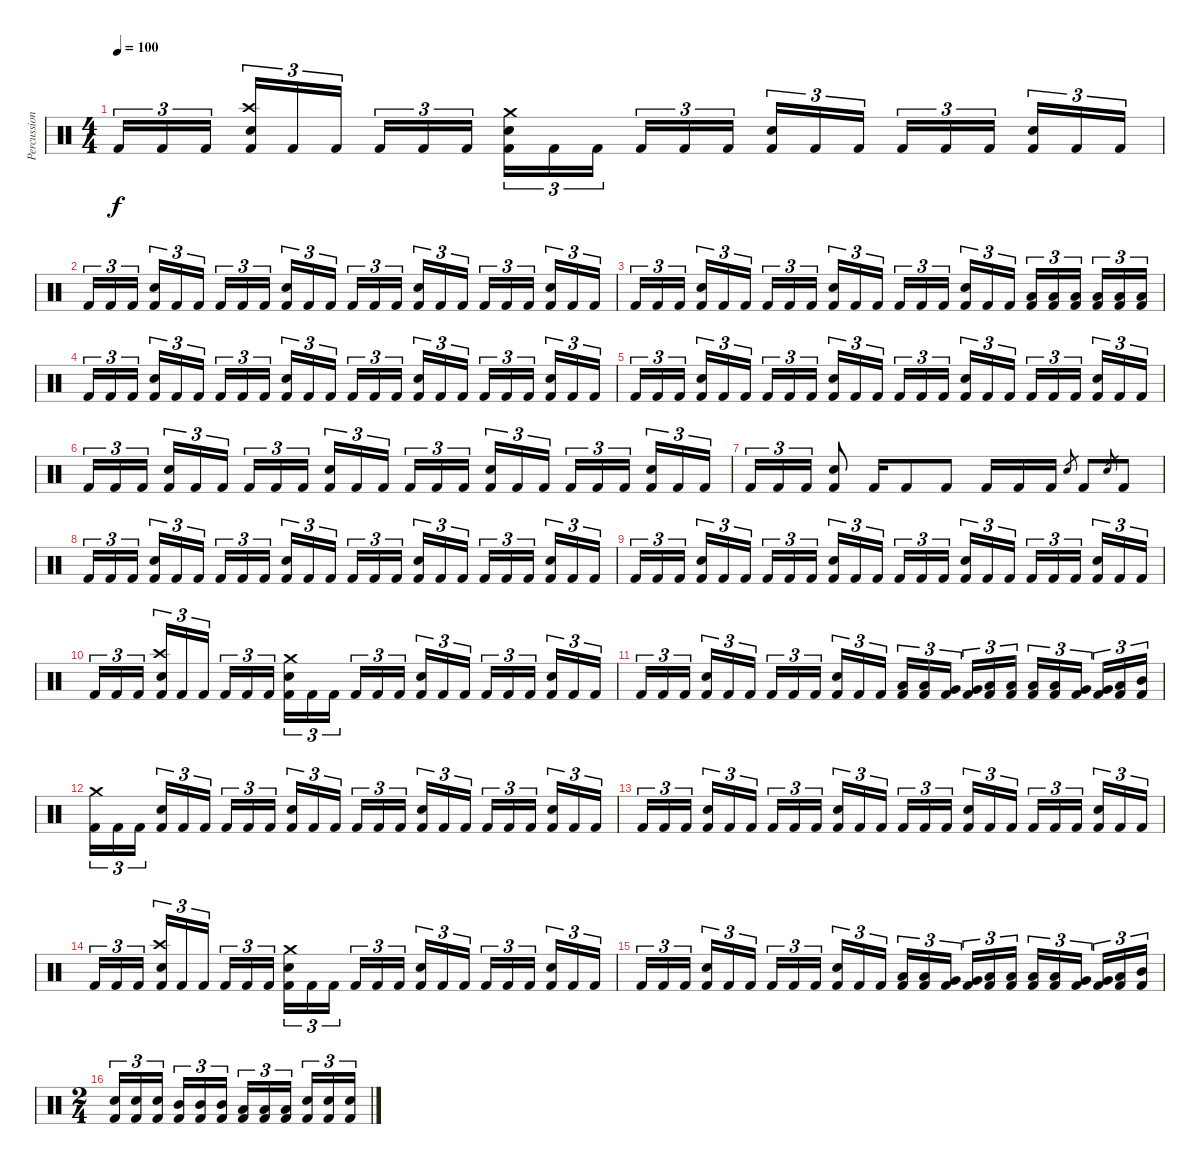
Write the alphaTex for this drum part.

\track ("Percussions" "Percussion") {instrument percussion}
\staff {score}
\articulation defaults
\ts (4 4)
\tempo 100
\clef neutral
\ks c "Kick (hit) 2".16{tu (3 2) dy f} "Kick (hit) 2".16{tu (3 2)} "Kick (hit) 2".16{tu (3 2)}
("Crash high (hit)" "Electric Snare (hit)" "Kick (hit) 2").16{tu (3 2)} "Kick (hit) 2".16{tu (3 2)} "Kick (hit) 2".16{tu (3 2)} "Kick (hit) 2".16{tu (3 2)} "Kick (hit) 2".16{tu (3 2)} "Kick (hit) 2".16{tu (3 2)} ("Crash medium (hit)" "Electric Snare (hit)" "Kick (hit) 2").16{tu (3 2)} "Kick (hit) 2".16{tu (3 2)} "Kick (hit) 2".16{tu (3 2)} "Kick (hit) 2".16{tu (3 2)} "Kick (hit) 2".16{tu (3 2)} "Kick (hit) 2".16{tu (3 2)} ("Electric Snare (hit)" "Kick (hit) 2").16{tu (3 2)} "Kick (hit) 2".16{tu (3 2)} "Kick (hit) 2".16{tu (3 2)} "Kick (hit) 2".16{tu (3 2)} "Kick (hit) 2".16{tu (3 2)} "Kick (hit) 2".16{tu (3 2)} ("Electric Snare (hit)" "Kick (hit) 2").16{tu (3 2)} "Kick (hit) 2".16{tu (3 2)} "Kick (hit) 2".16{tu (3 2)} |
"Kick (hit) 2".16{tu (3 2)} "Kick (hit) 2".16{tu (3 2)} "Kick (hit) 2".16{tu (3 2)} ("Electric Snare (hit)" "Kick (hit) 2").16{tu (3 2)} "Kick (hit) 2".16{tu (3 2)} "Kick (hit) 2".16{tu (3 2)} "Kick (hit) 2".16{tu (3 2)} "Kick (hit) 2".16{tu (3 2)} "Kick (hit) 2".16{tu (3 2)} ("Electric Snare (hit)" "Kick (hit) 2").16{tu (3 2)} "Kick (hit) 2".16{tu (3 2)} "Kick (hit) 2".16{tu (3 2)} "Kick (hit) 2".16{tu (3 2)} "Kick (hit) 2".16{tu (3 2)} "Kick (hit) 2".16{tu (3 2)} ("Electric Snare (hit)" "Kick (hit) 2").16{tu (3 2)} "Kick (hit) 2".16{tu (3 2)} "Kick (hit) 2".16{tu (3 2)} "Kick (hit) 2".16{tu (3 2)} "Kick (hit) 2".16{tu (3 2)} "Kick (hit) 2".16{tu (3 2)} ("Electric Snare (hit)" "Kick (hit) 2").16{tu (3 2)} "Kick (hit) 2".16{tu (3 2)} "Kick (hit) 2".16{tu (3 2)} |
"Kick (hit) 2".16{tu (3 2)} "Kick (hit) 2".16{tu (3 2)} "Kick (hit) 2".16{tu (3 2)} ("Electric Snare (hit)" "Kick (hit) 2").16{tu (3 2)} "Kick (hit) 2".16{tu (3 2)} "Kick (hit) 2".16{tu (3 2)} "Kick (hit) 2".16{tu (3 2)} "Kick (hit) 2".16{tu (3 2)} "Kick (hit) 2".16{tu (3 2)} ("Electric Snare (hit)" "Kick (hit) 2").16{tu (3 2)} "Kick (hit) 2".16{tu (3 2)} "Kick (hit) 2".16{tu (3 2)} "Kick (hit) 2".16{tu (3 2)} "Kick (hit) 2".16{tu (3 2)} "Kick (hit) 2".16{tu (3 2)} ("Electric Snare (hit)" "Kick (hit) 2").16{tu (3 2)} "Kick (hit) 2".16{tu (3 2)} "Kick (hit) 2".16{tu (3 2)} ("Low Tom (hit)" "Kick (hit) 2").16{tu (3 2)} ("Low Tom (hit)" "Kick (hit) 2").16{tu (3 2)} ("Low Tom (hit)" "Kick (hit) 2").16{tu (3 2)} ("Low Tom (hit)" "Kick (hit) 2").16{tu (3 2)} ("Low Tom (hit)" "Kick (hit) 2").16{tu (3 2)} ("Low Tom (hit)" "Kick (hit) 2").16{tu (3 2)} |
"Kick (hit) 2".16{tu (3 2)} "Kick (hit) 2".16{tu (3 2)} "Kick (hit) 2".16{tu (3 2)} ("Electric Snare (hit)" "Kick (hit) 2").16{tu (3 2)} "Kick (hit) 2".16{tu (3 2)} "Kick (hit) 2".16{tu (3 2)} "Kick (hit) 2".16{tu (3 2)} "Kick (hit) 2".16{tu (3 2)} "Kick (hit) 2".16{tu (3 2)} ("Electric Snare (hit)" "Kick (hit) 2").16{tu (3 2)} "Kick (hit) 2".16{tu (3 2)} "Kick (hit) 2".16{tu (3 2)} "Kick (hit) 2".16{tu (3 2)} "Kick (hit) 2".16{tu (3 2)} "Kick (hit) 2".16{tu (3 2)} ("Electric Snare (hit)" "Kick (hit) 2").16{tu (3 2)} "Kick (hit) 2".16{tu (3 2)} "Kick (hit) 2".16{tu (3 2)} "Kick (hit) 2".16{tu (3 2)} "Kick (hit) 2".16{tu (3 2)} "Kick (hit) 2".16{tu (3 2)} ("Electric Snare (hit)" "Kick (hit) 2").16{tu (3 2)} "Kick (hit) 2".16{tu (3 2)} "Kick (hit) 2".16{tu (3 2)} |
"Kick (hit) 2".16{tu (3 2)} "Kick (hit) 2".16{tu (3 2)} "Kick (hit) 2".16{tu (3 2)} ("Electric Snare (hit)" "Kick (hit) 2").16{tu (3 2)} "Kick (hit) 2".16{tu (3 2)} "Kick (hit) 2".16{tu (3 2)} "Kick (hit) 2".16{tu (3 2)} "Kick (hit) 2".16{tu (3 2)} "Kick (hit) 2".16{tu (3 2)} ("Electric Snare (hit)" "Kick (hit) 2").16{tu (3 2)} "Kick (hit) 2".16{tu (3 2)} "Kick (hit) 2".16{tu (3 2)} "Kick (hit) 2".16{tu (3 2)} "Kick (hit) 2".16{tu (3 2)} "Kick (hit) 2".16{tu (3 2)} ("Electric Snare (hit)" "Kick (hit) 2").16{tu (3 2)} "Kick (hit) 2".16{tu (3 2)} "Kick (hit) 2".16{tu (3 2)} "Kick (hit) 2".16{tu (3 2)} "Kick (hit) 2".16{tu (3 2)} "Kick (hit) 2".16{tu (3 2)} ("Electric Snare (hit)" "Kick (hit) 2").16{tu (3 2)} "Kick (hit) 2".16{tu (3 2)} "Kick (hit) 2".16{tu (3 2)} |
"Kick (hit) 2".16{tu (3 2)} "Kick (hit) 2".16{tu (3 2)} "Kick (hit) 2".16{tu (3 2)} ("Electric Snare (hit)" "Kick (hit) 2").16{tu (3 2)} "Kick (hit) 2".16{tu (3 2)} "Kick (hit) 2".16{tu (3 2)} "Kick (hit) 2".16{tu (3 2)} "Kick (hit) 2".16{tu (3 2)} "Kick (hit) 2".16{tu (3 2)} ("Electric Snare (hit)" "Kick (hit) 2").16{tu (3 2)} "Kick (hit) 2".16{tu (3 2)} "Kick (hit) 2".16{tu (3 2)} "Kick (hit) 2".16{tu (3 2)} "Kick (hit) 2".16{tu (3 2)} "Kick (hit) 2".16{tu (3 2)} ("Electric Snare (hit)" "Kick (hit) 2").16{tu (3 2)} "Kick (hit) 2".16{tu (3 2)} "Kick (hit) 2".16{tu (3 2)} "Kick (hit) 2".16{tu (3 2)} "Kick (hit) 2".16{tu (3 2)} "Kick (hit) 2".16{tu (3 2)} ("Electric Snare (hit)" "Kick (hit) 2").16{tu (3 2)} "Kick (hit) 2".16{tu (3 2)} "Kick (hit) 2".16{tu (3 2)} |
"Kick (hit) 2".16{tu (3 2)} "Kick (hit) 2".16{tu (3 2)} "Kick (hit) 2".16{tu (3 2)} ("Electric Snare (hit)" "Kick (hit) 2").8 "Kick (hit) 2".16 "Kick (hit) 2".8 "Kick (hit) 2".8 "Kick (hit) 2".16 "Kick (hit) 2".16 "Kick (hit) 2".16 "Electric Snare (hit)".8{gr} "Kick (hit) 2".8 "Electric Snare (hit)".8{gr} "Kick (hit) 2".8 |
"Kick (hit) 2".16{tu (3 2)} "Kick (hit) 2".16{tu (3 2)} "Kick (hit) 2".16{tu (3 2)} ("Electric Snare (hit)" "Kick (hit) 2").16{tu (3 2)} "Kick (hit) 2".16{tu (3 2)} "Kick (hit) 2".16{tu (3 2)} "Kick (hit) 2".16{tu (3 2)} "Kick (hit) 2".16{tu (3 2)} "Kick (hit) 2".16{tu (3 2)} ("Electric Snare (hit)" "Kick (hit) 2").16{tu (3 2)} "Kick (hit) 2".16{tu (3 2)} "Kick (hit) 2".16{tu (3 2)} "Kick (hit) 2".16{tu (3 2)} "Kick (hit) 2".16{tu (3 2)} "Kick (hit) 2".16{tu (3 2)} ("Electric Snare (hit)" "Kick (hit) 2").16{tu (3 2)} "Kick (hit) 2".16{tu (3 2)} "Kick (hit) 2".16{tu (3 2)} "Kick (hit) 2".16{tu (3 2)} "Kick (hit) 2".16{tu (3 2)} "Kick (hit) 2".16{tu (3 2)} ("Electric Snare (hit)" "Kick (hit) 2").16{tu (3 2)} "Kick (hit) 2".16{tu (3 2)} "Kick (hit) 2".16{tu (3 2)} |
"Kick (hit) 2".16{tu (3 2)} "Kick (hit) 2".16{tu (3 2)} "Kick (hit) 2".16{tu (3 2)} ("Electric Snare (hit)" "Kick (hit) 2").16{tu (3 2)} "Kick (hit) 2".16{tu (3 2)} "Kick (hit) 2".16{tu (3 2)} "Kick (hit) 2".16{tu (3 2)} "Kick (hit) 2".16{tu (3 2)} "Kick (hit) 2".16{tu (3 2)} ("Electric Snare (hit)" "Kick (hit) 2").16{tu (3 2)} "Kick (hit) 2".16{tu (3 2)} "Kick (hit) 2".16{tu (3 2)} "Kick (hit) 2".16{tu (3 2)} "Kick (hit) 2".16{tu (3 2)} "Kick (hit) 2".16{tu (3 2)} ("Electric Snare (hit)" "Kick (hit) 2").16{tu (3 2)} "Kick (hit) 2".16{tu (3 2)} "Kick (hit) 2".16{tu (3 2)} "Kick (hit) 2".16{tu (3 2)} "Kick (hit) 2".16{tu (3 2)} "Kick (hit) 2".16{tu (3 2)} ("Electric Snare (hit)" "Kick (hit) 2").16{tu (3 2)} "Kick (hit) 2".16{tu (3 2)} "Kick (hit) 2".16{tu (3 2)} |
"Kick (hit) 2".16{tu (3 2)} "Kick (hit) 2".16{tu (3 2)} "Kick (hit) 2".16{tu (3 2)} ("Crash high (hit)" "Electric Snare (hit)" "Kick (hit) 2").16{tu (3 2)} "Kick (hit) 2".16{tu (3 2)} "Kick (hit) 2".16{tu (3 2)} "Kick (hit) 2".16{tu (3 2)} "Kick (hit) 2".16{tu (3 2)} "Kick (hit) 2".16{tu (3 2)} ("Crash medium (hit)" "Electric Snare (hit)" "Kick (hit) 2").16{tu (3 2)} "Kick (hit) 2".16{tu (3 2)} "Kick (hit) 2".16{tu (3 2)} "Kick (hit) 2".16{tu (3 2)} "Kick (hit) 2".16{tu (3 2)} "Kick (hit) 2".16{tu (3 2)} ("Electric Snare (hit)" "Kick (hit) 2").16{tu (3 2)} "Kick (hit) 2".16{tu (3 2)} "Kick (hit) 2".16{tu (3 2)} "Kick (hit) 2".16{tu (3 2)} "Kick (hit) 2".16{tu (3 2)} "Kick (hit) 2".16{tu (3 2)} ("Electric Snare (hit)" "Kick (hit) 2").16{tu (3 2)} "Kick (hit) 2".16{tu (3 2)} "Kick (hit) 2".16{tu (3 2)} |
"Kick (hit) 2".16{tu (3 2)} "Kick (hit) 2".16{tu (3 2)} "Kick (hit) 2".16{tu (3 2)} ("Electric Snare (hit)" "Kick (hit) 2").16{tu (3 2)} "Kick (hit) 2".16{tu (3 2)} "Kick (hit) 2".16{tu (3 2)} "Kick (hit) 2".16{tu (3 2)} "Kick (hit) 2".16{tu (3 2)} "Kick (hit) 2".16{tu (3 2)} ("Electric Snare (hit)" "Kick (hit) 2").16{tu (3 2)} "Kick (hit) 2".16{tu (3 2)} "Kick (hit) 2".16{tu (3 2)} ("Low Tom (hit)" "Kick (hit) 2").16{tu (3 2)} ("Low Tom (hit)" "Kick (hit) 2").16{tu (3 2)} ("Very Low Tom (hit)" "Kick (hit) 2").16{tu (3 2)} ("Very Low Tom (hit)" "Kick (hit) 2").16{tu (3 2)} ("Low Floor Tom (hit)" "Kick (hit) 2").16{tu (3 2)} ("Low Floor Tom (hit)" "Kick (hit) 2").16{tu (3 2)} ("Low Tom (hit)" "Kick (hit) 2").16{tu (3 2)} ("Low Tom (hit)" "Kick (hit) 2").16{tu (3 2)} ("Very Low Tom (hit)" "Kick (hit) 2").16{tu (3 2)} ("Very Low Tom (hit)" "Kick (hit) 2").16{tu (3 2)} ("Low Floor Tom (hit)" "Kick (hit) 2").16{tu (3 2)} ("Mid Tom (hit)" "Kick (hit) 2").16{tu (3 2)} |
("Crash medium (hit)" "Kick (hit) 2").16{tu (3 2)} "Kick (hit) 2".16{tu (3 2)} "Kick (hit) 2".16{tu (3 2)} ("Electric Snare (hit)" "Kick (hit) 2").16{tu (3 2)} "Kick (hit) 2".16{tu (3 2)} "Kick (hit) 2".16{tu (3 2)} "Kick (hit) 2".16{tu (3 2)} "Kick (hit) 2".16{tu (3 2)} "Kick (hit) 2".16{tu (3 2)} ("Electric Snare (hit)" "Kick (hit) 2").16{tu (3 2)} "Kick (hit) 2".16{tu (3 2)} "Kick (hit) 2".16{tu (3 2)} "Kick (hit) 2".16{tu (3 2)} "Kick (hit) 2".16{tu (3 2)} "Kick (hit) 2".16{tu (3 2)} ("Electric Snare (hit)" "Kick (hit) 2").16{tu (3 2)} "Kick (hit) 2".16{tu (3 2)} "Kick (hit) 2".16{tu (3 2)} "Kick (hit) 2".16{tu (3 2)} "Kick (hit) 2".16{tu (3 2)} "Kick (hit) 2".16{tu (3 2)} ("Electric Snare (hit)" "Kick (hit) 2").16{tu (3 2)} "Kick (hit) 2".16{tu (3 2)} "Kick (hit) 2".16{tu (3 2)} |
"Kick (hit) 2".16{tu (3 2)} "Kick (hit) 2".16{tu (3 2)} "Kick (hit) 2".16{tu (3 2)} ("Electric Snare (hit)" "Kick (hit) 2").16{tu (3 2)} "Kick (hit) 2".16{tu (3 2)} "Kick (hit) 2".16{tu (3 2)} "Kick (hit) 2".16{tu (3 2)} "Kick (hit) 2".16{tu (3 2)} "Kick (hit) 2".16{tu (3 2)} ("Electric Snare (hit)" "Kick (hit) 2").16{tu (3 2)} "Kick (hit) 2".16{tu (3 2)} "Kick (hit) 2".16{tu (3 2)} "Kick (hit) 2".16{tu (3 2)} "Kick (hit) 2".16{tu (3 2)} "Kick (hit) 2".16{tu (3 2)} ("Electric Snare (hit)" "Kick (hit) 2").16{tu (3 2)} "Kick (hit) 2".16{tu (3 2)} "Kick (hit) 2".16{tu (3 2)} "Kick (hit) 2".16{tu (3 2)} "Kick (hit) 2".16{tu (3 2)} "Kick (hit) 2".16{tu (3 2)} ("Electric Snare (hit)" "Kick (hit) 2").16{tu (3 2)} "Kick (hit) 2".16{tu (3 2)} "Kick (hit) 2".16{tu (3 2)} |
"Kick (hit) 2".16{tu (3 2)} "Kick (hit) 2".16{tu (3 2)} "Kick (hit) 2".16{tu (3 2)} ("Crash high (hit)" "Electric Snare (hit)" "Kick (hit) 2").16{tu (3 2)} "Kick (hit) 2".16{tu (3 2)} "Kick (hit) 2".16{tu (3 2)} "Kick (hit) 2".16{tu (3 2)} "Kick (hit) 2".16{tu (3 2)} "Kick (hit) 2".16{tu (3 2)} ("Crash medium (hit)" "Electric Snare (hit)" "Kick (hit) 2").16{tu (3 2)} "Kick (hit) 2".16{tu (3 2)} "Kick (hit) 2".16{tu (3 2)} "Kick (hit) 2".16{tu (3 2)} "Kick (hit) 2".16{tu (3 2)} "Kick (hit) 2".16{tu (3 2)} ("Electric Snare (hit)" "Kick (hit) 2").16{tu (3 2)} "Kick (hit) 2".16{tu (3 2)} "Kick (hit) 2".16{tu (3 2)} "Kick (hit) 2".16{tu (3 2)} "Kick (hit) 2".16{tu (3 2)} "Kick (hit) 2".16{tu (3 2)} ("Electric Snare (hit)" "Kick (hit) 2").16{tu (3 2)} "Kick (hit) 2".16{tu (3 2)} "Kick (hit) 2".16{tu (3 2)} |
"Kick (hit) 2".16{tu (3 2)} "Kick (hit) 2".16{tu (3 2)} "Kick (hit) 2".16{tu (3 2)} ("Electric Snare (hit)" "Kick (hit) 2").16{tu (3 2)} "Kick (hit) 2".16{tu (3 2)} "Kick (hit) 2".16{tu (3 2)} "Kick (hit) 2".16{tu (3 2)} "Kick (hit) 2".16{tu (3 2)} "Kick (hit) 2".16{tu (3 2)} ("Electric Snare (hit)" "Kick (hit) 2").16{tu (3 2)} "Kick (hit) 2".16{tu (3 2)} "Kick (hit) 2".16{tu (3 2)} ("Low Tom (hit)" "Kick (hit) 2").16{tu (3 2)} ("Low Tom (hit)" "Kick (hit) 2").16{tu (3 2)} ("Very Low Tom (hit)" "Kick (hit) 2").16{tu (3 2)} ("Very Low Tom (hit)" "Kick (hit) 2").16{tu (3 2)} ("Low Floor Tom (hit)" "Kick (hit) 2").16{tu (3 2)} ("Low Floor Tom (hit)" "Kick (hit) 2").16{tu (3 2)} ("Low Tom (hit)" "Kick (hit) 2").16{tu (3 2)} ("Low Tom (hit)" "Kick (hit) 2").16{tu (3 2)} ("Very Low Tom (hit)" "Kick (hit) 2").16{tu (3 2)} ("Very Low Tom (hit)" "Kick (hit) 2").16{tu (3 2)} ("Low Floor Tom (hit)" "Kick (hit) 2").16{tu (3 2)} ("Mid Tom (hit)" "Kick (hit) 2").16{tu (3 2)} |
\ts (2 4)
("Electric Snare (hit)" "Kick (hit) 2").16{tu (3 2)} ("Electric Snare (hit)" "Kick (hit) 2").16{tu (3 2)} ("Electric Snare (hit)" "Kick (hit) 2").16{tu (3 2)} ("Mid Tom (hit)" "Kick (hit) 2").16{tu (3 2)} ("Mid Tom (hit)" "Kick (hit) 2").16{tu (3 2)} ("Mid Tom (hit)" "Kick (hit) 2").16{tu (3 2)} ("Low Tom (hit)" "Kick (hit) 2").16{tu (3 2)} ("Low Tom (hit)" "Kick (hit) 2").16{tu (3 2)} ("Low Tom (hit)" "Kick (hit) 2").16{tu (3 2)} ("Electric Snare (hit)" "Kick (hit) 2").16{tu (3 2)} ("Electric Snare (hit)" "Kick (hit) 2").16{tu (3 2)} ("Electric Snare (hit)" "Kick (hit) 2").16{tu (3 2)}
